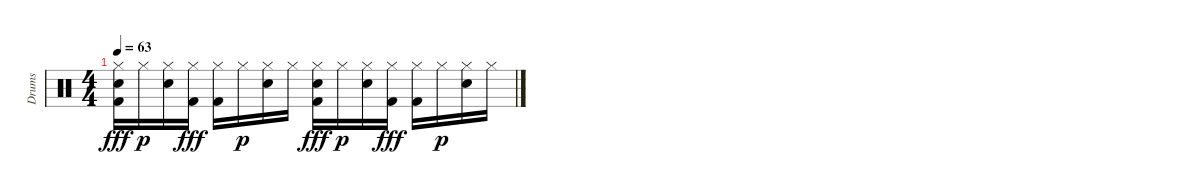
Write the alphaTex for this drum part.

\track ("Drums" "Drums") {instrument percussion}
\staff {score}
\articulation defaults
\ts (4 4)
\tempo 63
\clef neutral
\ks c
("Electric Snare (hit)" "Hi-Hat (closed)" "Kick (hit) 2").16{dy fff} "Hi-Hat (closed)".16{dy p} ("Electric Snare (hit)" "Hi-Hat (closed)").16 ("Hi-Hat (closed)" "Kick (hit) 2").16{dy fff} ("Hi-Hat (closed)" "Kick (hit) 2").16 "Hi-Hat (closed)".16{dy p} ("Electric Snare (hit)" "Hi-Hat (closed)").16 "Hi-Hat (closed)".16 ("Electric Snare (hit)" "Hi-Hat (closed)" "Kick (hit) 2").16{dy fff} "Hi-Hat (closed)".16{dy p} ("Electric Snare (hit)" "Hi-Hat (closed)").16 ("Hi-Hat (closed)" "Kick (hit) 2").16{dy fff} ("Hi-Hat (closed)" "Kick (hit) 2").16 "Hi-Hat (closed)".16{dy p} ("Electric Snare (hit)" "Hi-Hat (closed)").16 "Hi-Hat (closed)".16
